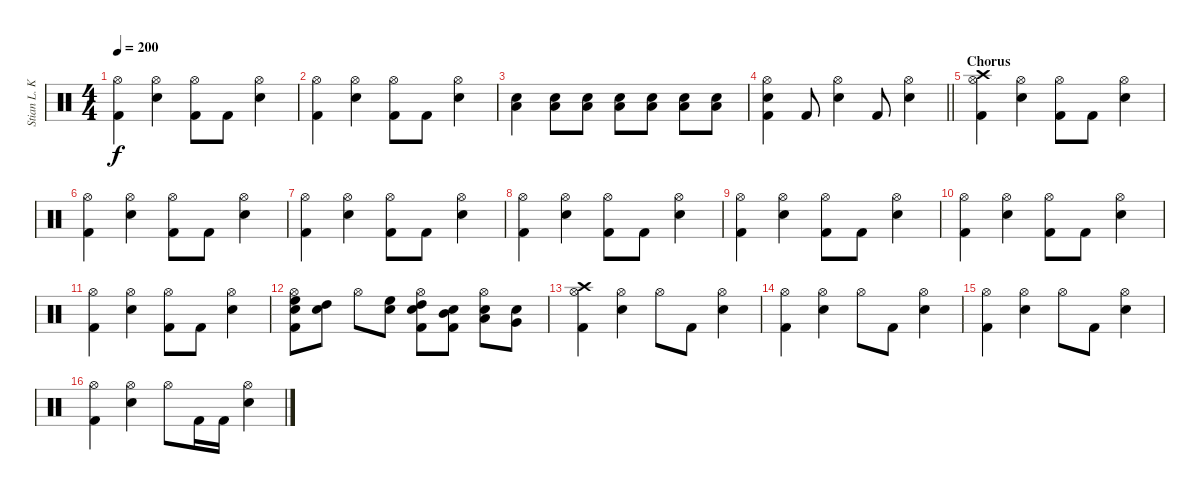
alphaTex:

\track ("Stian L. Kristoffersen - Drums" "Stian L. K") {instrument percussion}
\staff {score}
\articulation defaults
\ts (4 4)
\tempo 200
\clef neutral
\ks c
("Hi-Hat (open)" "Kick (hit) 2").4{dy f} ("Hi-Hat (open)" "Electric Snare (hit)").4 ("Hi-Hat (open)" "Kick (hit) 2").8 "Kick (hit) 2".8 ("Hi-Hat (open)" "Electric Snare (hit)").4 |
("Hi-Hat (open)" "Kick (hit) 2").4 ("Hi-Hat (open)" "Electric Snare (hit)").4 ("Hi-Hat (open)" "Kick (hit) 2").8 "Kick (hit) 2".8 ("Hi-Hat (open)" "Electric Snare (hit)").4 |
("Electric Snare (hit)" "Low Tom (hit)").4 ("Electric Snare (hit)" "Low Tom (hit)").8 ("Electric Snare (hit)" "Low Tom (hit)").8 ("Electric Snare (hit)" "Low Tom (hit)").8 ("Electric Snare (hit)" "Low Tom (hit)").8 ("Electric Snare (hit)" "Low Tom (hit)").8 ("Electric Snare (hit)" "Low Tom (hit)").8 |
\barLineRight lightlight
("Hi-Hat (open)" "Electric Snare (hit)" "Kick (hit) 2").4 "Kick (hit) 2".8 ("Hi-Hat (open)" "Electric Snare (hit)").4 "Kick (hit) 2".8 ("Hi-Hat (open)" "Electric Snare (hit)").4 |
\section ("" "Chorus")
("Crash high (hit)" "Hi-Hat (open)" "Kick (hit) 2").4 ("Hi-Hat (open)" "Electric Snare (hit)").4 ("Hi-Hat (open)" "Kick (hit) 2").8 "Kick (hit) 2".8 ("Hi-Hat (open)" "Electric Snare (hit)").4 |
("Hi-Hat (open)" "Kick (hit) 2").4 ("Hi-Hat (open)" "Electric Snare (hit)").4 ("Hi-Hat (open)" "Kick (hit) 2").8 "Kick (hit) 2".8 ("Hi-Hat (open)" "Electric Snare (hit)").4 |
("Hi-Hat (open)" "Kick (hit) 2").4 ("Hi-Hat (open)" "Electric Snare (hit)").4 ("Hi-Hat (open)" "Kick (hit) 2").8 "Kick (hit) 2".8 ("Hi-Hat (open)" "Electric Snare (hit)").4 |
("Hi-Hat (open)" "Kick (hit) 2").4 ("Hi-Hat (open)" "Electric Snare (hit)").4 ("Hi-Hat (open)" "Kick (hit) 2").8 "Kick (hit) 2".8 ("Hi-Hat (open)" "Electric Snare (hit)").4 |
("Hi-Hat (open)" "Kick (hit) 2").4 ("Hi-Hat (open)" "Electric Snare (hit)").4 ("Hi-Hat (open)" "Kick (hit) 2").8 "Kick (hit) 2".8 ("Hi-Hat (open)" "Electric Snare (hit)").4 |
("Hi-Hat (open)" "Kick (hit) 2").4 ("Hi-Hat (open)" "Electric Snare (hit)").4 ("Hi-Hat (open)" "Kick (hit) 2").8 "Kick (hit) 2".8 ("Hi-Hat (open)" "Electric Snare (hit)").4 |
("Hi-Hat (open)" "Kick (hit) 2").4 ("Hi-Hat (open)" "Electric Snare (hit)").4 ("Hi-Hat (open)" "Kick (hit) 2").8 "Kick (hit) 2".8 ("Hi-Hat (open)" "Electric Snare (hit)").4 |
("Hi-Hat (open)" "Electric Snare (hit)" "High Floor Tom (hit)" "Kick (hit) 2").8 ("Electric Snare (hit)" "High Tom (hit)").8 "Hi-Hat (open)".8 ("Electric Snare (hit)" "High Floor Tom (hit)").8 ("Hi-Hat (open)" "Electric Snare (hit)" "High Tom (hit)" "Kick (hit) 2").8 ("Electric Snare (hit)" "Mid Tom (hit)" "Kick (hit) 2").8 ("Hi-Hat (open)" "Electric Snare (hit)" "Low Tom (hit)").8 ("Electric Snare (hit)" "Very Low Tom (hit)").8 |
("Crash high (hit)" "Hi-Hat (open)" "Kick (hit) 2").4 ("Hi-Hat (open)" "Electric Snare (hit)").4 "Hi-Hat (open)".8 "Kick (hit) 2".8 ("Hi-Hat (open)" "Electric Snare (hit)").4 |
("Hi-Hat (open)" "Kick (hit) 2").4 ("Hi-Hat (open)" "Electric Snare (hit)").4 "Hi-Hat (open)".8 "Kick (hit) 2".8 ("Hi-Hat (open)" "Electric Snare (hit)").4 |
("Hi-Hat (open)" "Kick (hit) 2").4 ("Hi-Hat (open)" "Electric Snare (hit)").4 "Hi-Hat (open)".8 "Kick (hit) 2".8 ("Hi-Hat (open)" "Electric Snare (hit)").4 |
("Hi-Hat (open)" "Kick (hit) 2").4 ("Hi-Hat (open)" "Electric Snare (hit)").4 "Hi-Hat (open)".8 "Kick (hit) 2".16 "Kick (hit) 2".16 ("Hi-Hat (open)" "Electric Snare (hit)").4
